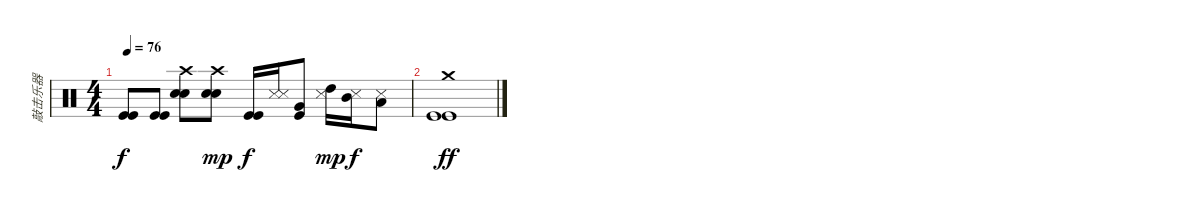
\track ("敲击乐器" "敲击乐器") {instrument percussion}
\staff {score}
\articulation defaults
\ts (4 4)
\tempo 76
\clef neutral
\ks c
("Kick (hit)" "Kick (hit)").8{dy f} ("Kick (hit)" "Kick (hit)").8 ("Electric Snare (hit)" "Metronome (bell)" "Crash high (hit)").8 ("Electric Snare (hit)" "Metronome (bell)" "Crash high (hit)").8{dy mp} ("Kick (hit)" "Kick (hit)").16{dy f} ("Metronome (hit)" "Metronome (hit)").16 ("Very Low Tom (hit)" "Kick (hit)").8 ("High Tom (hit)" "Metronome (hit)").16{dy mp} ("Mid Tom (hit)" "Metronome (hit)").16{dy f} ("Low Tom (hit)" "Metronome (hit)").8 |
("Kick (hit)" "Kick (hit)" "Crash medium (hit)").1{dy ff}
